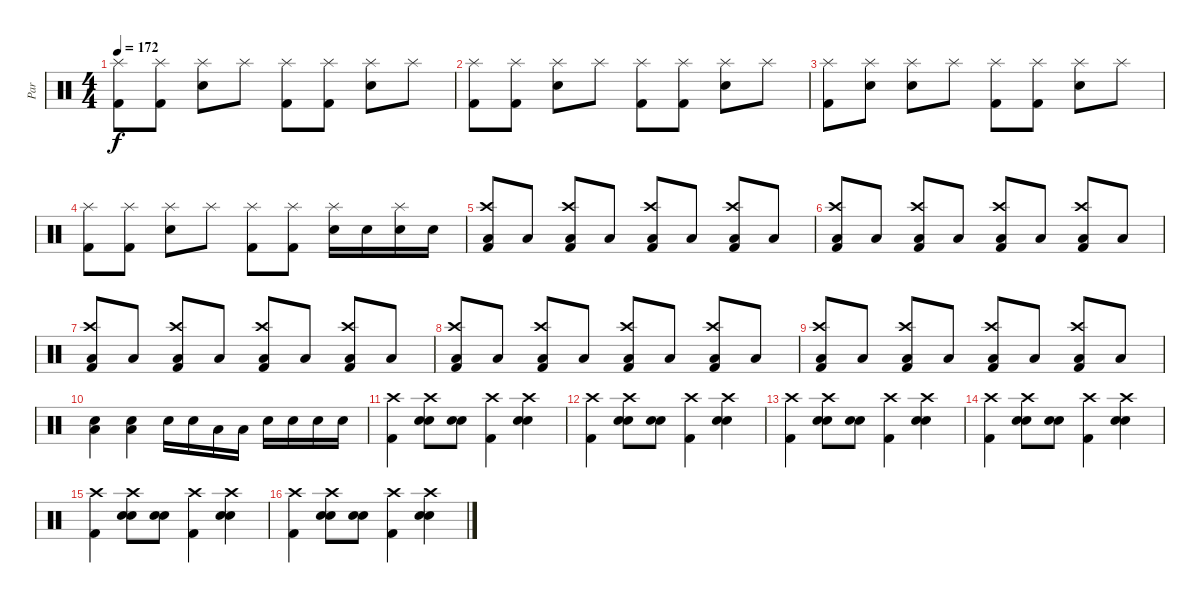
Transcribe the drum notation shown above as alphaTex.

\track ("Par" "Par") {instrument percussion}
\staff {score}
\articulation defaults
\ts (4 4)
\tempo 172
\clef neutral
\ks c
("Splash (hit)" "Kick (hit) 2").8{dy f} ("Splash (hit)" "Kick (hit) 2").8 ("Splash (hit)" "Snare (hit) 2").8 "Splash (hit)".8 ("Splash (hit)" "Kick (hit) 2").8 ("Splash (hit)" "Kick (hit) 2").8 ("Splash (hit)" "Snare (hit) 2").8 "Splash (hit)".8 |
("Splash (hit)" "Kick (hit) 2").8 ("Splash (hit)" "Kick (hit) 2").8 ("Splash (hit)" "Snare (hit) 2").8 "Splash (hit)".8 ("Splash (hit)" "Kick (hit) 2").8 ("Splash (hit)" "Kick (hit) 2").8 ("Splash (hit)" "Snare (hit) 2").8 "Splash (hit)".8 |
("Splash (hit)" "Kick (hit) 2").8 ("Splash (hit)" "Snare (hit) 2").8 ("Splash (hit)" "Snare (hit) 2").8 "Splash (hit)".8 ("Splash (hit)" "Kick (hit) 2").8 ("Splash (hit)" "Kick (hit) 2").8 ("Splash (hit)" "Snare (hit) 2").8 "Splash (hit)".8 |
("Splash (hit)" "Kick (hit) 2").8 ("Splash (hit)" "Kick (hit) 2").8 ("Splash (hit)" "Snare (hit) 2").8 "Splash (hit)".8 ("Splash (hit)" "Kick (hit) 2").8 ("Splash (hit)" "Kick (hit) 2").8 ("Splash (hit)" "Snare (hit) 2").16 "Snare (hit) 2".16 ("Splash (hit)" "Snare (hit) 2").16 "Snare (hit) 2".16 |
("Crash high (hit)" "Low Floor Tom (hit)" "Kick (hit) 2").8 "Low Floor Tom (hit)".8 ("Crash high (hit)" "Low Floor Tom (hit)" "Kick (hit) 2").8 "Low Floor Tom (hit)".8 ("Crash high (hit)" "Low Floor Tom (hit)" "Kick (hit) 2").8 "Low Floor Tom (hit)".8 ("Crash high (hit)" "Low Floor Tom (hit)" "Kick (hit) 2").8 "Low Floor Tom (hit)".8 |
("Crash high (hit)" "Low Floor Tom (hit)" "Kick (hit) 2").8 "Low Floor Tom (hit)".8 ("Crash high (hit)" "Low Floor Tom (hit)" "Kick (hit) 2").8 "Low Floor Tom (hit)".8 ("Crash high (hit)" "Low Floor Tom (hit)" "Kick (hit) 2").8 "Low Floor Tom (hit)".8 ("Crash high (hit)" "Low Floor Tom (hit)" "Kick (hit) 2").8 "Low Floor Tom (hit)".8 |
("Crash high (hit)" "Low Floor Tom (hit)" "Kick (hit) 2").8 "Low Floor Tom (hit)".8 ("Crash high (hit)" "Low Floor Tom (hit)" "Kick (hit) 2").8 "Low Floor Tom (hit)".8 ("Crash high (hit)" "Low Floor Tom (hit)" "Kick (hit) 2").8 "Low Floor Tom (hit)".8 ("Crash high (hit)" "Low Floor Tom (hit)" "Kick (hit) 2").8 "Low Floor Tom (hit)".8 |
("Crash high (hit)" "Low Floor Tom (hit)" "Kick (hit) 2").8 "Low Floor Tom (hit)".8 ("Crash high (hit)" "Low Floor Tom (hit)" "Kick (hit) 2").8 "Low Floor Tom (hit)".8 ("Crash high (hit)" "Low Floor Tom (hit)" "Kick (hit) 2").8 "Low Floor Tom (hit)".8 ("Crash high (hit)" "Low Floor Tom (hit)" "Kick (hit) 2").8 "Low Floor Tom (hit)".8 |
("Crash high (hit)" "Low Floor Tom (hit)" "Kick (hit) 2").8 "Low Floor Tom (hit)".8 ("Crash high (hit)" "Low Floor Tom (hit)" "Kick (hit) 2").8 "Low Floor Tom (hit)".8 ("Crash high (hit)" "Low Floor Tom (hit)" "Kick (hit) 2").8 "Low Floor Tom (hit)".8 ("Crash high (hit)" "Low Floor Tom (hit)" "Kick (hit) 2").8 "Low Floor Tom (hit)".8 |
("Low Floor Tom (hit)" "Snare (hit) 2").4 ("Low Floor Tom (hit)" "Snare (hit) 2").4 "Snare (hit) 2".16 "Snare (hit) 2".16 "Low Tom (hit)".16 "Low Tom (hit)".16 "Snare (hit) 2".16 "Snare (hit) 2".16 "Snare (hit) 2".16 "Snare (hit) 2".16 |
("Crash high (hit)" "Kick (hit) 2").4 ("Hand Clap (hit)" "Crash high (hit)" "Snare (hit) 2").8 ("Hand Clap (hit)" "Snare (hit) 2").8 ("Crash high (hit)" "Kick (hit) 2").4 ("Hand Clap (hit)" "Crash high (hit)" "Snare (hit) 2").4 |
("Crash high (hit)" "Kick (hit) 2").4 ("Hand Clap (hit)" "Crash high (hit)" "Snare (hit) 2").8 ("Hand Clap (hit)" "Snare (hit) 2").8 ("Crash high (hit)" "Kick (hit) 2").4 ("Hand Clap (hit)" "Crash high (hit)" "Snare (hit) 2").4 |
("Crash high (hit)" "Kick (hit) 2").4 ("Hand Clap (hit)" "Crash high (hit)" "Snare (hit) 2").8 ("Hand Clap (hit)" "Snare (hit) 2").8 ("Crash high (hit)" "Kick (hit) 2").4 ("Hand Clap (hit)" "Crash high (hit)" "Snare (hit) 2").4 |
("Crash high (hit)" "Kick (hit) 2").4 ("Hand Clap (hit)" "Crash high (hit)" "Snare (hit) 2").8 ("Hand Clap (hit)" "Snare (hit) 2").8 ("Crash high (hit)" "Kick (hit) 2").4 ("Hand Clap (hit)" "Crash high (hit)" "Snare (hit) 2").4 |
("Crash high (hit)" "Kick (hit) 2").4 ("Hand Clap (hit)" "Crash high (hit)" "Snare (hit) 2").8 ("Hand Clap (hit)" "Snare (hit) 2").8 ("Crash high (hit)" "Kick (hit) 2").4 ("Hand Clap (hit)" "Crash high (hit)" "Snare (hit) 2").4 |
("Crash high (hit)" "Kick (hit) 2").4 ("Hand Clap (hit)" "Crash high (hit)" "Snare (hit) 2").8 ("Hand Clap (hit)" "Snare (hit) 2").8 ("Crash high (hit)" "Kick (hit) 2").4 ("Hand Clap (hit)" "Crash high (hit)" "Snare (hit) 2").4
